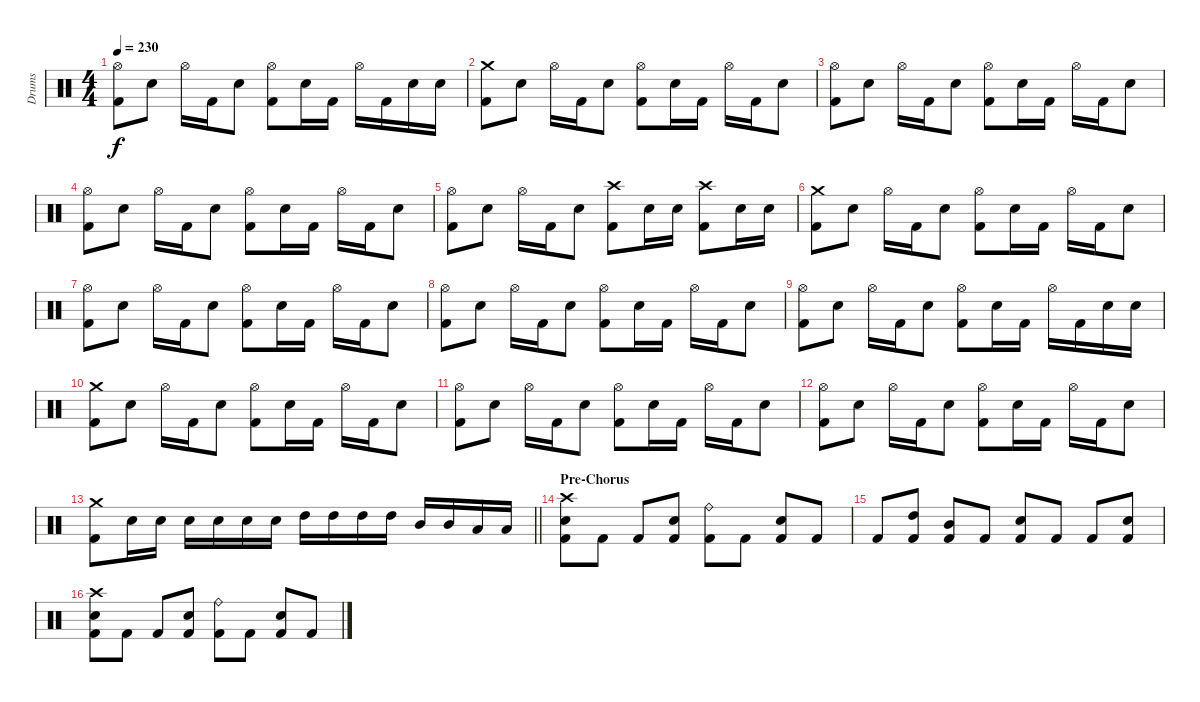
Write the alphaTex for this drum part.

\track ("Drums" "Drums") {instrument percussion}
\staff {score}
\articulation defaults
\ts (4 4)
\tempo 230
\clef neutral
\ks c
("Hi-Hat (open)" "Kick (hit) 2").8{dy f} "Electric Snare (hit)".8 "Hi-Hat (open)".16 "Kick (hit) 2".16 "Electric Snare (hit)".8 ("Hi-Hat (open)" "Kick (hit) 2").8 "Electric Snare (hit)".16 "Kick (hit) 2".16 "Hi-Hat (open)".16 "Kick (hit) 2".16 "Electric Snare (hit)".16 "Electric Snare (hit)".16 |
("Crash medium (hit)" "Kick (hit) 2").8 "Electric Snare (hit)".8 "Hi-Hat (open)".16 "Kick (hit) 2".16 "Electric Snare (hit)".8 ("Hi-Hat (open)" "Kick (hit) 2").8 "Electric Snare (hit)".16 "Kick (hit) 2".16 "Hi-Hat (open)".16 "Kick (hit) 2".16 "Electric Snare (hit)".8 |
("Hi-Hat (open)" "Kick (hit) 2").8 "Electric Snare (hit)".8 "Hi-Hat (open)".16 "Kick (hit) 2".16 "Electric Snare (hit)".8 ("Hi-Hat (open)" "Kick (hit) 2").8 "Electric Snare (hit)".16 "Kick (hit) 2".16 "Hi-Hat (open)".16 "Kick (hit) 2".16 "Electric Snare (hit)".8 |
("Hi-Hat (open)" "Kick (hit) 2").8 "Electric Snare (hit)".8 "Hi-Hat (open)".16 "Kick (hit) 2".16 "Electric Snare (hit)".8 ("Hi-Hat (open)" "Kick (hit) 2").8 "Electric Snare (hit)".16 "Kick (hit) 2".16 "Hi-Hat (open)".16 "Kick (hit) 2".16 "Electric Snare (hit)".8 |
("Hi-Hat (open)" "Kick (hit) 2").8 "Electric Snare (hit)".8 "Hi-Hat (open)".16 "Kick (hit) 2".16 "Electric Snare (hit)".8 ("Crash high (hit)" "Kick (hit) 2").8 "Electric Snare (hit)".16 "Electric Snare (hit)".16 ("Crash high (hit)" "Kick (hit) 2").8 "Electric Snare (hit)".16 "Electric Snare (hit)".16 |
("Crash medium (hit)" "Kick (hit) 2").8 "Electric Snare (hit)".8 "Hi-Hat (open)".16 "Kick (hit) 2".16 "Electric Snare (hit)".8 ("Hi-Hat (open)" "Kick (hit) 2").8 "Electric Snare (hit)".16 "Kick (hit) 2".16 "Hi-Hat (open)".16 "Kick (hit) 2".16 "Electric Snare (hit)".8 |
("Hi-Hat (open)" "Kick (hit) 2").8 "Electric Snare (hit)".8 "Hi-Hat (open)".16 "Kick (hit) 2".16 "Electric Snare (hit)".8 ("Hi-Hat (open)" "Kick (hit) 2").8 "Electric Snare (hit)".16 "Kick (hit) 2".16 "Hi-Hat (open)".16 "Kick (hit) 2".16 "Electric Snare (hit)".8 |
("Hi-Hat (open)" "Kick (hit) 2").8 "Electric Snare (hit)".8 "Hi-Hat (open)".16 "Kick (hit) 2".16 "Electric Snare (hit)".8 ("Hi-Hat (open)" "Kick (hit) 2").8 "Electric Snare (hit)".16 "Kick (hit) 2".16 "Hi-Hat (open)".16 "Kick (hit) 2".16 "Electric Snare (hit)".8 |
("Hi-Hat (open)" "Kick (hit) 2").8 "Electric Snare (hit)".8 "Hi-Hat (open)".16 "Kick (hit) 2".16 "Electric Snare (hit)".8 ("Hi-Hat (open)" "Kick (hit) 2").8 "Electric Snare (hit)".16 "Kick (hit) 2".16 "Hi-Hat (open)".16 "Kick (hit) 2".16 "Electric Snare (hit)".16 "Electric Snare (hit)".16 |
("Crash medium (hit)" "Kick (hit) 2").8 "Electric Snare (hit)".8 "Hi-Hat (open)".16 "Kick (hit) 2".16 "Electric Snare (hit)".8 ("Hi-Hat (open)" "Kick (hit) 2").8 "Electric Snare (hit)".16 "Kick (hit) 2".16 "Hi-Hat (open)".16 "Kick (hit) 2".16 "Electric Snare (hit)".8 |
("Hi-Hat (open)" "Kick (hit) 2").8 "Electric Snare (hit)".8 "Hi-Hat (open)".16 "Kick (hit) 2".16 "Electric Snare (hit)".8 ("Hi-Hat (open)" "Kick (hit) 2").8 "Electric Snare (hit)".16 "Kick (hit) 2".16 "Hi-Hat (open)".16 "Kick (hit) 2".16 "Electric Snare (hit)".8 |
("Hi-Hat (open)" "Kick (hit) 2").8 "Electric Snare (hit)".8 "Hi-Hat (open)".16 "Kick (hit) 2".16 "Electric Snare (hit)".8 ("Hi-Hat (open)" "Kick (hit) 2").8 "Electric Snare (hit)".16 "Kick (hit) 2".16 "Hi-Hat (open)".16 "Kick (hit) 2".16 "Electric Snare (hit)".8 |
\barLineRight lightlight
("Crash medium (hit)" "Kick (hit) 2").8 "Electric Snare (hit)".16 "Electric Snare (hit)".16 "Electric Snare (hit)".16 "Electric Snare (hit)".16 "Electric Snare (hit)".16 "Electric Snare (hit)".16 "High Tom (hit)".16 "High Tom (hit)".16 "High Tom (hit)".16 "High Tom (hit)".16 "Mid Tom (hit)".16 "Mid Tom (hit)".16 "Low Tom (hit)".16 "Low Tom (hit)".16 |
\section ("" "Pre-Chorus")
("Crash high (hit)" "Electric Snare (hit)" "Kick (hit) 2").8 "Kick (hit) 2".8 "Kick (hit) 2".8 ("Electric Snare (hit)" "Kick (hit) 2").8 ("Ride (bell)" "Kick (hit) 2").8 "Kick (hit) 2".8 ("Electric Snare (hit)" "Kick (hit) 2").8 "Kick (hit) 2".8 |
"Kick (hit) 2".8 ("High Tom (hit)" "Kick (hit) 2").8 ("Mid Tom (hit)" "Kick (hit) 2").8 "Kick (hit) 2".8 ("Electric Snare (hit)" "Kick (hit) 2").8 "Kick (hit) 2".8 "Kick (hit) 2".8 ("Electric Snare (hit)" "Kick (hit) 2").8 |
("Crash high (hit)" "Electric Snare (hit)" "Kick (hit) 2").8 "Kick (hit) 2".8 "Kick (hit) 2".8 ("Electric Snare (hit)" "Kick (hit) 2").8 ("Ride (bell)" "Kick (hit) 2").8 "Kick (hit) 2".8 ("Electric Snare (hit)" "Kick (hit) 2").8 "Kick (hit) 2".8
